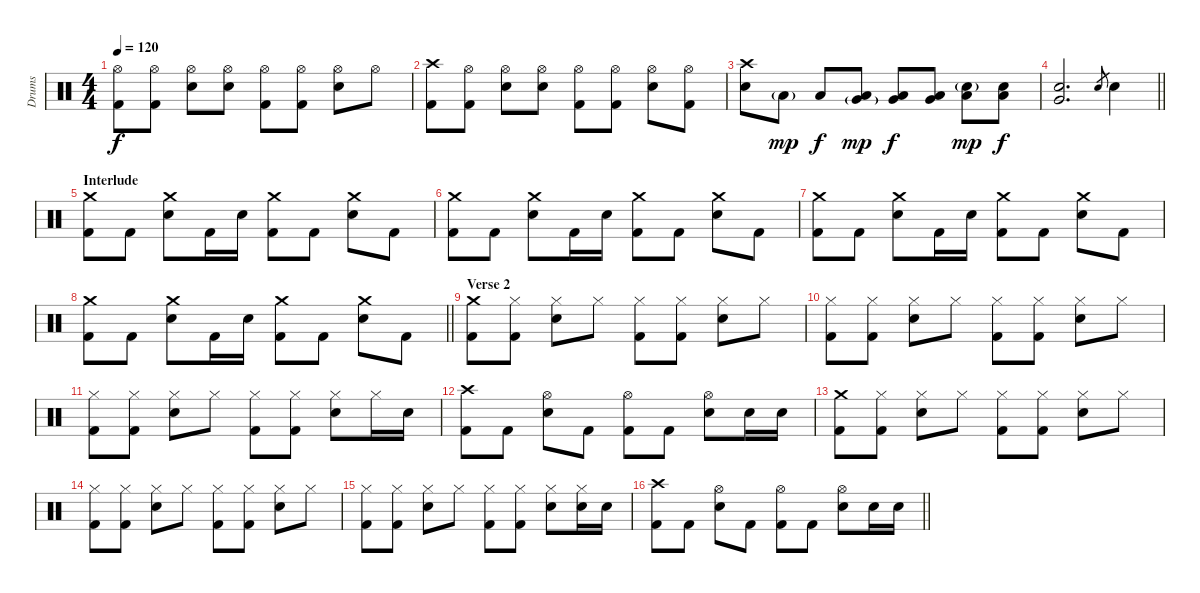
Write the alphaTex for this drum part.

\track ("Drums" "Drums") {instrument percussion}
\staff {score}
\articulation defaults
\ts (4 4)
\tempo 120
\clef neutral
\ks c
("Hi-Hat (open)" "Kick (hit) 2").8{dy f} ("Hi-Hat (open)" "Kick (hit) 2").8 ("Hi-Hat (open)" "Electric Snare (hit)").8 ("Hi-Hat (open)" "Electric Snare (hit)").8 ("Hi-Hat (open)" "Kick (hit) 2").8 ("Hi-Hat (open)" "Kick (hit) 2").8 ("Hi-Hat (open)" "Electric Snare (hit)").8 "Hi-Hat (open)".8 |
("Crash high (hit)" "Kick (hit) 2").8 ("Hi-Hat (open)" "Kick (hit) 2").8 ("Hi-Hat (open)" "Electric Snare (hit)").8 ("Hi-Hat (open)" "Electric Snare (hit)").8 ("Hi-Hat (open)" "Kick (hit) 2").8 ("Hi-Hat (open)" "Kick (hit) 2").8 ("Hi-Hat (open)" "Electric Snare (hit)").8 ("Hi-Hat (open)" "Kick (hit) 2").8 |
("Crash high (hit)" "Electric Snare (hit)").8 "Low Floor Tom (hit)"{g}.8{dy mp} "Low Floor Tom (hit)".8{dy f} ("Very Low Tom (hit)"{g} "Low Floor Tom (hit)").8{dy mp} ("Very Low Tom (hit)" "Low Floor Tom (hit)").8{dy f} ("Very Low Tom (hit)" "Low Tom (hit)").8 ("Electric Snare (hit)"{g} "Low Tom (hit)").8{dy mp} ("Electric Snare (hit)" "Low Tom (hit)").8{dy f} |
\barLineRight lightlight
("Very Low Tom (hit)" "Electric Snare (hit)").2{d} "Electric Snare (hit)".8{gr} "Electric Snare (hit)".4 |
\section ("" "Interlude")
("Crash medium (hit)" "Kick (hit) 2").8 "Kick (hit) 2".8 ("Crash medium (hit)" "Electric Snare (hit)").8 "Kick (hit) 2".16 "Electric Snare (hit)".16 ("Crash medium (hit)" "Kick (hit) 2").8 "Kick (hit) 2".8 ("Crash medium (hit)" "Electric Snare (hit)").8 "Kick (hit) 2".8 |
("Crash medium (hit)" "Kick (hit) 2").8 "Kick (hit) 2".8 ("Crash medium (hit)" "Electric Snare (hit)").8 "Kick (hit) 2".16 "Electric Snare (hit)".16 ("Crash medium (hit)" "Kick (hit) 2").8 "Kick (hit) 2".8 ("Crash medium (hit)" "Electric Snare (hit)").8 "Kick (hit) 2".8 |
("Crash medium (hit)" "Kick (hit) 2").8 "Kick (hit) 2".8 ("Crash medium (hit)" "Electric Snare (hit)").8 "Kick (hit) 2".16 "Electric Snare (hit)".16 ("Crash medium (hit)" "Kick (hit) 2").8 "Kick (hit) 2".8 ("Crash medium (hit)" "Electric Snare (hit)").8 "Kick (hit) 2".8 |
\barLineRight lightlight
("Crash medium (hit)" "Kick (hit) 2").8 "Kick (hit) 2".8 ("Crash medium (hit)" "Electric Snare (hit)").8 "Kick (hit) 2".16 "Electric Snare (hit)".16 ("Crash medium (hit)" "Kick (hit) 2").8 "Kick (hit) 2".8 ("Crash medium (hit)" "Electric Snare (hit)").8 "Kick (hit) 2".8 |
\section ("" "Verse 2")
("Crash medium (hit)" "Kick (hit) 2").8 ("Hi-Hat (closed)" "Kick (hit) 2").8 ("Hi-Hat (closed)" "Electric Snare (hit)").8 "Hi-Hat (closed)".8 ("Hi-Hat (closed)" "Kick (hit) 2").8 ("Hi-Hat (closed)" "Kick (hit) 2").8 ("Hi-Hat (closed)" "Electric Snare (hit)").8 "Hi-Hat (closed)".8 |
("Hi-Hat (closed)" "Kick (hit) 2").8 ("Hi-Hat (closed)" "Kick (hit) 2").8 ("Hi-Hat (closed)" "Electric Snare (hit)").8 "Hi-Hat (closed)".8 ("Hi-Hat (closed)" "Kick (hit) 2").8 ("Hi-Hat (closed)" "Kick (hit) 2").8 ("Hi-Hat (closed)" "Electric Snare (hit)").8 "Hi-Hat (closed)".8 |
("Hi-Hat (closed)" "Kick (hit) 2").8 ("Hi-Hat (closed)" "Kick (hit) 2").8 ("Hi-Hat (closed)" "Electric Snare (hit)").8 "Hi-Hat (closed)".8 ("Hi-Hat (closed)" "Kick (hit) 2").8 ("Hi-Hat (closed)" "Kick (hit) 2").8 ("Hi-Hat (closed)" "Electric Snare (hit)").8 "Hi-Hat (closed)".16 "Electric Snare (hit)".16 |
("Crash high (hit)" "Kick (hit) 2").8 "Kick (hit) 2".8 ("Hi-Hat (open)" "Electric Snare (hit)").8 "Kick (hit) 2".8 ("Hi-Hat (open)" "Kick (hit) 2").8 "Kick (hit) 2".8 ("Hi-Hat (open)" "Electric Snare (hit)").8 "Electric Snare (hit)".16 "Electric Snare (hit)".16 |
("Crash medium (hit)" "Kick (hit) 2").8 ("Hi-Hat (closed)" "Kick (hit) 2").8 ("Hi-Hat (closed)" "Electric Snare (hit)").8 "Hi-Hat (closed)".8 ("Hi-Hat (closed)" "Kick (hit) 2").8 ("Hi-Hat (closed)" "Kick (hit) 2").8 ("Hi-Hat (closed)" "Electric Snare (hit)").8 "Hi-Hat (closed)".8 |
("Hi-Hat (closed)" "Kick (hit) 2").8 ("Hi-Hat (closed)" "Kick (hit) 2").8 ("Hi-Hat (closed)" "Electric Snare (hit)").8 "Hi-Hat (closed)".8 ("Hi-Hat (closed)" "Kick (hit) 2").8 ("Hi-Hat (closed)" "Kick (hit) 2").8 ("Hi-Hat (closed)" "Electric Snare (hit)").8 "Hi-Hat (closed)".8 |
("Hi-Hat (closed)" "Kick (hit) 2").8 ("Hi-Hat (closed)" "Kick (hit) 2").8 ("Hi-Hat (closed)" "Electric Snare (hit)").8 "Hi-Hat (closed)".8 ("Hi-Hat (closed)" "Kick (hit) 2").8 ("Hi-Hat (closed)" "Kick (hit) 2").8 ("Hi-Hat (closed)" "Electric Snare (hit)").8 ("Hi-Hat (closed)" "Electric Snare (hit)").16 "Electric Snare (hit)".16 |
\barLineRight lightlight
("Crash high (hit)" "Kick (hit) 2").8 "Kick (hit) 2".8 ("Hi-Hat (open)" "Electric Snare (hit)").8 "Kick (hit) 2".8 ("Hi-Hat (open)" "Kick (hit) 2").8 "Kick (hit) 2".8 ("Hi-Hat (open)" "Electric Snare (hit)").8 "Electric Snare (hit)".16 "Electric Snare (hit)".16
